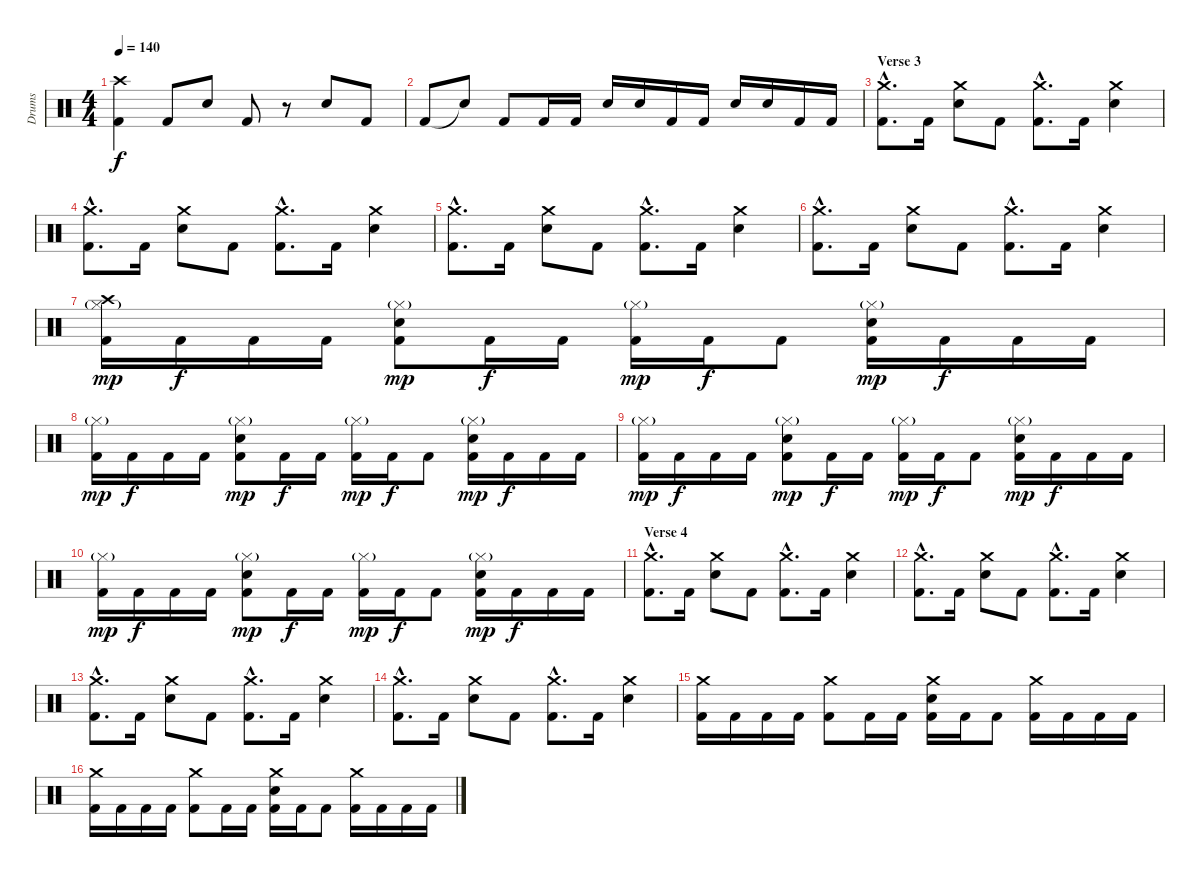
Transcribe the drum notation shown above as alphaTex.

\track ("Drums" "Drums") {instrument percussion}
\staff {score}
\articulation defaults
\ts (4 4)
\tempo 140
\clef neutral
\ks c
("Crash high (hit)" "Kick (hit) 2").4{dy f} "Kick (hit) 2".8 "Electric Snare (hit)".8 "Kick (hit) 2".8 r.8 "Electric Snare (hit)".8 "Kick (hit) 2".8 |
"Kick (hit) 2".8 "Snare (hit)"{t}.8 "Kick (hit) 2".8 "Kick (hit) 2".16 "Kick (hit) 2".16 "Electric Snare (hit)".16 "Electric Snare (hit)".16 "Kick (hit) 2".16 "Kick (hit) 2".16 "Electric Snare (hit)".16 "Electric Snare (hit)".16 "Kick (hit) 2".16 "Kick (hit) 2".16 |
\section ("" "Verse 3")
("Crash medium (hit)"{hac} "Kick (hit) 2"{hac}).8{d} "Kick (hit) 2".16 ("Crash medium (hit)" "Electric Snare (hit)").8 "Kick (hit) 2".8 ("Crash medium (hit)"{hac} "Kick (hit) 2"{hac}).8{d} "Kick (hit) 2".16 ("Crash medium (hit)" "Electric Snare (hit)").4 |
("Crash medium (hit)"{hac} "Kick (hit) 2"{hac}).8{d} "Kick (hit) 2".16 ("Crash medium (hit)" "Electric Snare (hit)").8 "Kick (hit) 2".8 ("Crash medium (hit)"{hac} "Kick (hit) 2"{hac}).8{d} "Kick (hit) 2".16 ("Crash medium (hit)" "Electric Snare (hit)").4 |
("Crash medium (hit)"{hac} "Kick (hit) 2"{hac}).8{d} "Kick (hit) 2".16 ("Crash medium (hit)" "Electric Snare (hit)").8 "Kick (hit) 2".8 ("Crash medium (hit)"{hac} "Kick (hit) 2"{hac}).8{d} "Kick (hit) 2".16 ("Crash medium (hit)" "Electric Snare (hit)").4 |
("Crash medium (hit)"{hac} "Kick (hit) 2"{hac}).8{d} "Kick (hit) 2".16 ("Crash medium (hit)" "Electric Snare (hit)").8 "Kick (hit) 2".8 ("Crash medium (hit)"{hac} "Kick (hit) 2"{hac}).8{d} "Kick (hit) 2".16 ("Crash medium (hit)" "Electric Snare (hit)").4 |
("Crash high (hit)" "Hi-Hat (closed)"{g} "Kick (hit) 2").16{dy mp} "Kick (hit) 2".16{dy f} "Kick (hit) 2".16 "Kick (hit) 2".16 ("Hi-Hat (closed)"{g} "Electric Snare (hit)" "Kick (hit) 2").8{dy mp} "Kick (hit) 2".16{dy f} "Kick (hit) 2".16 ("Hi-Hat (closed)"{g} "Kick (hit) 2").16{dy mp} "Kick (hit) 2".16{dy f} "Kick (hit) 2".8 ("Hi-Hat (closed)"{g} "Electric Snare (hit)" "Kick (hit) 2").16{dy mp} "Kick (hit) 2".16{dy f} "Kick (hit) 2".16 "Kick (hit) 2".16 |
("Hi-Hat (closed)"{g} "Kick (hit) 2").16{dy mp} "Kick (hit) 2".16{dy f} "Kick (hit) 2".16 "Kick (hit) 2".16 ("Hi-Hat (closed)"{g} "Electric Snare (hit)" "Kick (hit) 2").8{dy mp} "Kick (hit) 2".16{dy f} "Kick (hit) 2".16 ("Hi-Hat (closed)"{g} "Kick (hit) 2").16{dy mp} "Kick (hit) 2".16{dy f} "Kick (hit) 2".8 ("Hi-Hat (closed)"{g} "Electric Snare (hit)" "Kick (hit) 2").16{dy mp} "Kick (hit) 2".16{dy f} "Kick (hit) 2".16 "Kick (hit) 2".16 |
("Hi-Hat (closed)"{g} "Kick (hit) 2").16{dy mp} "Kick (hit) 2".16{dy f} "Kick (hit) 2".16 "Kick (hit) 2".16 ("Hi-Hat (closed)"{g} "Electric Snare (hit)" "Kick (hit) 2").8{dy mp} "Kick (hit) 2".16{dy f} "Kick (hit) 2".16 ("Hi-Hat (closed)"{g} "Kick (hit) 2").16{dy mp} "Kick (hit) 2".16{dy f} "Kick (hit) 2".8 ("Hi-Hat (closed)"{g} "Electric Snare (hit)" "Kick (hit) 2").16{dy mp} "Kick (hit) 2".16{dy f} "Kick (hit) 2".16 "Kick (hit) 2".16 |
("Hi-Hat (closed)"{g} "Kick (hit) 2").16{dy mp} "Kick (hit) 2".16{dy f} "Kick (hit) 2".16 "Kick (hit) 2".16 ("Hi-Hat (closed)"{g} "Electric Snare (hit)" "Kick (hit) 2").8{dy mp} "Kick (hit) 2".16{dy f} "Kick (hit) 2".16 ("Hi-Hat (closed)"{g} "Kick (hit) 2").16{dy mp} "Kick (hit) 2".16{dy f} "Kick (hit) 2".8 ("Hi-Hat (closed)"{g} "Electric Snare (hit)" "Kick (hit) 2").16{dy mp} "Kick (hit) 2".16{dy f} "Kick (hit) 2".16 "Kick (hit) 2".16 |
\section ("" "Verse 4")
("Crash medium (hit)"{hac} "Kick (hit) 2"{hac}).8{d} "Kick (hit) 2".16 ("Crash medium (hit)" "Electric Snare (hit)").8 "Kick (hit) 2".8 ("Crash medium (hit)"{hac} "Kick (hit) 2"{hac}).8{d} "Kick (hit) 2".16 ("Crash medium (hit)" "Electric Snare (hit)").4 |
("Crash medium (hit)"{hac} "Kick (hit) 2"{hac}).8{d} "Kick (hit) 2".16 ("Crash medium (hit)" "Electric Snare (hit)").8 "Kick (hit) 2".8 ("Crash medium (hit)"{hac} "Kick (hit) 2"{hac}).8{d} "Kick (hit) 2".16 ("Crash medium (hit)" "Electric Snare (hit)").4 |
("Crash medium (hit)"{hac} "Kick (hit) 2"{hac}).8{d} "Kick (hit) 2".16 ("Crash medium (hit)" "Electric Snare (hit)").8 "Kick (hit) 2".8 ("Crash medium (hit)"{hac} "Kick (hit) 2"{hac}).8{d} "Kick (hit) 2".16 ("Crash medium (hit)" "Electric Snare (hit)").4 |
("Crash medium (hit)"{hac} "Kick (hit) 2"{hac}).8{d} "Kick (hit) 2".16 ("Crash medium (hit)" "Electric Snare (hit)").8 "Kick (hit) 2".8 ("Crash medium (hit)"{hac} "Kick (hit) 2"{hac}).8{d} "Kick (hit) 2".16 ("Crash medium (hit)" "Electric Snare (hit)").4 |
("Crash medium (hit)" "Kick (hit) 2").16 "Kick (hit) 2".16 "Kick (hit) 2".16 "Kick (hit) 2".16 ("Crash medium (hit)" "Kick (hit) 2").8 "Kick (hit) 2".16 "Kick (hit) 2".16 ("Crash medium (hit)" "Electric Snare (hit)" "Kick (hit) 2").16 "Kick (hit) 2".16 "Kick (hit) 2".8 ("Crash medium (hit)" "Kick (hit) 2").16 "Kick (hit) 2".16 "Kick (hit) 2".16 "Kick (hit) 2".16 |
("Crash medium (hit)" "Kick (hit) 2").16 "Kick (hit) 2".16 "Kick (hit) 2".16 "Kick (hit) 2".16 ("Crash medium (hit)" "Kick (hit) 2").8 "Kick (hit) 2".16 "Kick (hit) 2".16 ("Crash medium (hit)" "Electric Snare (hit)" "Kick (hit) 2").16 "Kick (hit) 2".16 "Kick (hit) 2".8 ("Crash medium (hit)" "Kick (hit) 2").16 "Kick (hit) 2".16 "Kick (hit) 2".16 "Kick (hit) 2".16
